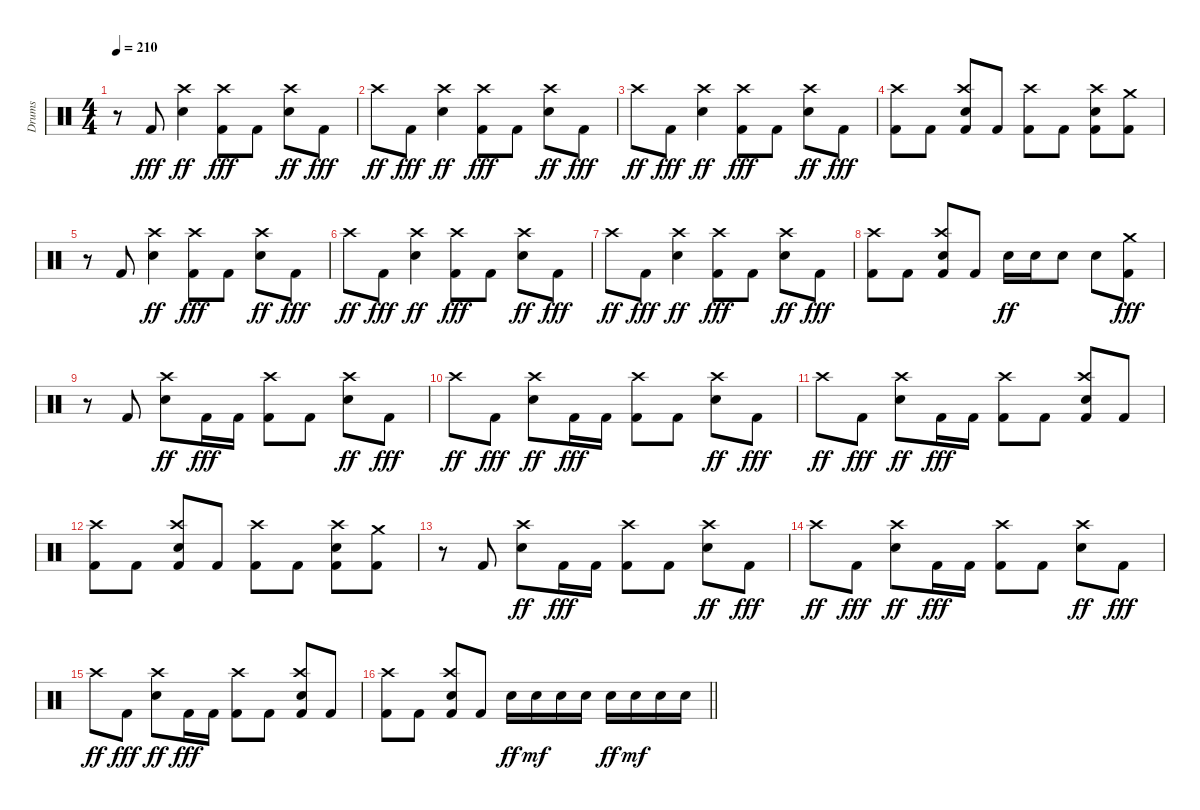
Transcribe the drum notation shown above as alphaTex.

\track ("Drums" "Drums") {instrument percussion}
\staff {score}
\articulation defaults
\ts (4 4)
\tempo 210
\clef neutral
\ks c
r.8{dy fff} "Kick (hit) 2".8 ("Crash high (hit)" "Snare (hit) 2").4{dy ff} ("Crash high (hit)" "Kick (hit) 2").8{dy fff} "Kick (hit) 2".8 ("Crash high (hit)" "Snare (hit) 2").8{dy ff} "Kick (hit) 2".8{dy fff} |
"Crash high (hit)".8{dy ff} "Kick (hit) 2".8{dy fff} ("Crash high (hit)" "Snare (hit) 2").4{dy ff} ("Crash high (hit)" "Kick (hit) 2").8{dy fff} "Kick (hit) 2".8 ("Crash high (hit)" "Snare (hit) 2").8{dy ff} "Kick (hit) 2".8{dy fff} |
"Crash high (hit)".8{dy ff} "Kick (hit) 2".8{dy fff} ("Crash high (hit)" "Snare (hit) 2").4{dy ff} ("Crash high (hit)" "Kick (hit) 2").8{dy fff} "Kick (hit) 2".8 ("Crash high (hit)" "Snare (hit) 2").8{dy ff} "Kick (hit) 2".8{dy fff} |
("Crash high (hit)" "Kick (hit) 2").8 "Kick (hit) 2".8 ("Crash high (hit)" "Snare (hit) 2" "Kick (hit) 2").8 "Kick (hit) 2".8 ("Crash high (hit)" "Kick (hit) 2").8 "Kick (hit) 2".8 ("Crash high (hit)" "Snare (hit) 2" "Kick (hit) 2").8 ("Crash medium (hit)" "Kick (hit) 2").8 |
r.8 "Kick (hit) 2".8 ("Crash high (hit)" "Snare (hit) 2").4{dy ff} ("Crash high (hit)" "Kick (hit) 2").8{dy fff} "Kick (hit) 2".8 ("Crash high (hit)" "Snare (hit) 2").8{dy ff} "Kick (hit) 2".8{dy fff} |
"Crash high (hit)".8{dy ff} "Kick (hit) 2".8{dy fff} ("Crash high (hit)" "Snare (hit) 2").4{dy ff} ("Crash high (hit)" "Kick (hit) 2").8{dy fff} "Kick (hit) 2".8 ("Crash high (hit)" "Snare (hit) 2").8{dy ff} "Kick (hit) 2".8{dy fff} |
"Crash high (hit)".8{dy ff} "Kick (hit) 2".8{dy fff} ("Crash high (hit)" "Snare (hit) 2").4{dy ff} ("Crash high (hit)" "Kick (hit) 2").8{dy fff} "Kick (hit) 2".8 ("Crash high (hit)" "Snare (hit) 2").8{dy ff} "Kick (hit) 2".8{dy fff} |
("Crash high (hit)" "Kick (hit) 2").8 "Kick (hit) 2".8 ("Crash high (hit)" "Snare (hit) 2" "Kick (hit) 2").8 "Kick (hit) 2".8 "Snare (hit) 2".16{dy ff} "Snare (hit) 2".16 "Snare (hit) 2".8 "Snare (hit) 2".8 ("Crash medium (hit)" "Kick (hit) 2").8{dy fff} |
r.8 "Kick (hit) 2".8 ("Crash high (hit)" "Snare (hit) 2").8{dy ff} "Kick (hit) 2".16{dy fff} "Kick (hit) 2".16 ("Crash high (hit)" "Kick (hit) 2").8 "Kick (hit) 2".8 ("Crash high (hit)" "Snare (hit) 2").8{dy ff} "Kick (hit) 2".8{dy fff} |
"Crash high (hit)".8{dy ff} "Kick (hit) 2".8{dy fff} ("Crash high (hit)" "Snare (hit) 2").8{dy ff} "Kick (hit) 2".16{dy fff} "Kick (hit) 2".16 ("Crash high (hit)" "Kick (hit) 2").8 "Kick (hit) 2".8 ("Crash high (hit)" "Snare (hit) 2").8{dy ff} "Kick (hit) 2".8{dy fff} |
"Crash high (hit)".8{dy ff} "Kick (hit) 2".8{dy fff} ("Crash high (hit)" "Snare (hit) 2").8{dy ff} "Kick (hit) 2".16{dy fff} "Kick (hit) 2".16 ("Crash high (hit)" "Kick (hit) 2").8 "Kick (hit) 2".8 ("Crash high (hit)" "Snare (hit) 2" "Kick (hit) 2").8 "Kick (hit) 2".8 |
("Crash high (hit)" "Kick (hit) 2").8 "Kick (hit) 2".8 ("Crash high (hit)" "Snare (hit) 2" "Kick (hit) 2").8 "Kick (hit) 2".8 ("Crash high (hit)" "Kick (hit) 2").8 "Kick (hit) 2".8 ("Crash high (hit)" "Snare (hit) 2" "Kick (hit) 2").8 ("Crash medium (hit)" "Kick (hit) 2").8 |
r.8 "Kick (hit) 2".8 ("Crash high (hit)" "Snare (hit) 2").8{dy ff} "Kick (hit) 2".16{dy fff} "Kick (hit) 2".16 ("Crash high (hit)" "Kick (hit) 2").8 "Kick (hit) 2".8 ("Crash high (hit)" "Snare (hit) 2").8{dy ff} "Kick (hit) 2".8{dy fff} |
"Crash high (hit)".8{dy ff} "Kick (hit) 2".8{dy fff} ("Crash high (hit)" "Snare (hit) 2").8{dy ff} "Kick (hit) 2".16{dy fff} "Kick (hit) 2".16 ("Crash high (hit)" "Kick (hit) 2").8 "Kick (hit) 2".8 ("Crash high (hit)" "Snare (hit) 2").8{dy ff} "Kick (hit) 2".8{dy fff} |
"Crash high (hit)".8{dy ff} "Kick (hit) 2".8{dy fff} ("Crash high (hit)" "Snare (hit) 2").8{dy ff} "Kick (hit) 2".16{dy fff} "Kick (hit) 2".16 ("Crash high (hit)" "Kick (hit) 2").8 "Kick (hit) 2".8 ("Crash high (hit)" "Snare (hit) 2" "Kick (hit) 2").8 "Kick (hit) 2".8 |
\barLineRight lightlight
("Crash high (hit)" "Kick (hit) 2").8 "Kick (hit) 2".8 ("Crash high (hit)" "Snare (hit) 2" "Kick (hit) 2").8 "Kick (hit) 2".8 "Snare (hit) 2".16{dy ff} "Snare (hit) 2".16{dy mf} "Snare (hit) 2".16 "Snare (hit) 2".16 "Snare (hit) 2".16{dy ff} "Snare (hit) 2".16{dy mf} "Snare (hit) 2".16 "Snare (hit) 2".16
